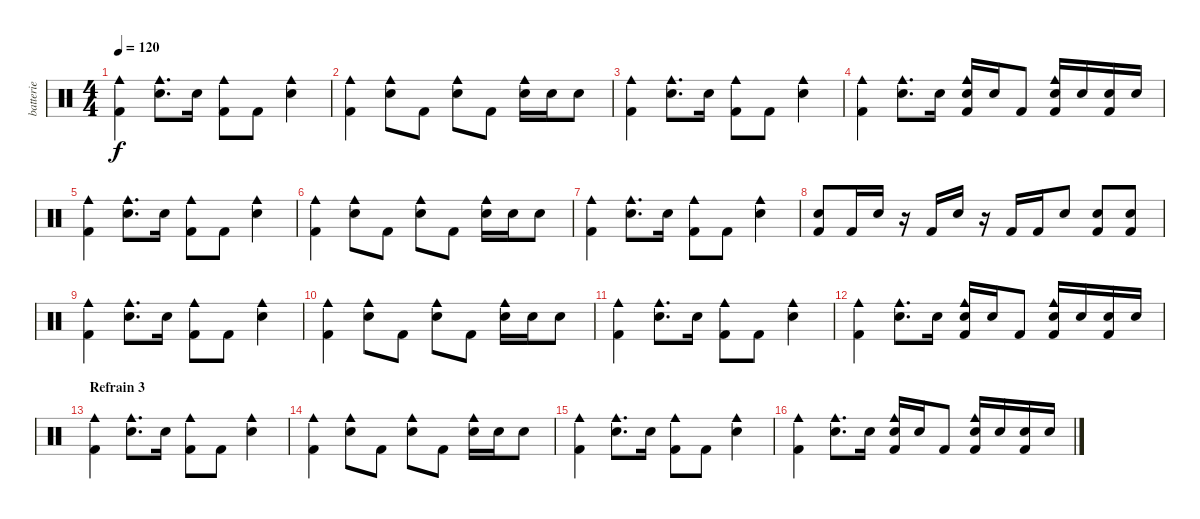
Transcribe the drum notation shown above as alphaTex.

\track ("batterie" "batterie") {instrument percussion}
\staff {score}
\articulation defaults
\ts (4 4)
\tempo 120
\clef neutral
\ks c
("Kick (hit) 2" "Cowbell medium (hit)").4{dy f} ("Electric Snare (hit)" "Cowbell medium (hit)").8{d} "Electric Snare (hit)".16 ("Kick (hit) 2" "Cowbell medium (hit)").8 "Kick (hit) 2".8 ("Electric Snare (hit)" "Cowbell medium (hit)").4 |
("Kick (hit) 2" "Cowbell medium (hit)").4 ("Electric Snare (hit)" "Cowbell medium (hit)").8 "Kick (hit) 2".8 ("Electric Snare (hit)" "Cowbell medium (hit)").8 "Kick (hit) 2".8 ("Electric Snare (hit)" "Cowbell medium (hit)").16 "Electric Snare (hit)".16 "Electric Snare (hit)".8 |
("Kick (hit) 2" "Cowbell medium (hit)").4 ("Electric Snare (hit)" "Cowbell medium (hit)").8{d} "Electric Snare (hit)".16 ("Kick (hit) 2" "Cowbell medium (hit)").8 "Kick (hit) 2".8 ("Electric Snare (hit)" "Cowbell medium (hit)").4 |
("Kick (hit) 2" "Cowbell medium (hit)").4 ("Electric Snare (hit)" "Cowbell medium (hit)").8{d} "Electric Snare (hit)".16 ("Kick (hit) 2" "Electric Snare (hit)" "Cowbell medium (hit)").16 "Electric Snare (hit)".16 "Kick (hit) 2".8 ("Kick (hit) 2" "Electric Snare (hit)" "Cowbell medium (hit)").16 "Electric Snare (hit)".16 ("Kick (hit) 2" "Electric Snare (hit)").16 "Electric Snare (hit)".16 |
("Kick (hit) 2" "Cowbell medium (hit)").4 ("Electric Snare (hit)" "Cowbell medium (hit)").8{d} "Electric Snare (hit)".16 ("Kick (hit) 2" "Cowbell medium (hit)").8 "Kick (hit) 2".8 ("Electric Snare (hit)" "Cowbell medium (hit)").4 |
("Kick (hit) 2" "Cowbell medium (hit)").4 ("Electric Snare (hit)" "Cowbell medium (hit)").8 "Kick (hit) 2".8 ("Electric Snare (hit)" "Cowbell medium (hit)").8 "Kick (hit) 2".8 ("Electric Snare (hit)" "Cowbell medium (hit)").16 "Electric Snare (hit)".16 "Electric Snare (hit)".8 |
("Kick (hit) 2" "Cowbell medium (hit)").4 ("Electric Snare (hit)" "Cowbell medium (hit)").8{d} "Electric Snare (hit)".16 ("Kick (hit) 2" "Cowbell medium (hit)").8 "Kick (hit) 2".8 ("Electric Snare (hit)" "Cowbell medium (hit)").4 |
("Kick (hit) 2" "Electric Snare (hit)").8 "Kick (hit) 2".16 "Electric Snare (hit)".16 r.16 "Kick (hit) 2".16 "Electric Snare (hit)".16 r.16 "Kick (hit) 2".16 "Kick (hit) 2".16 "Electric Snare (hit)".8 ("Kick (hit) 2" "Electric Snare (hit)").8 ("Kick (hit) 2" "Electric Snare (hit)").8 |
("Kick (hit) 2" "Cowbell medium (hit)").4 ("Electric Snare (hit)" "Cowbell medium (hit)").8{d} "Electric Snare (hit)".16 ("Kick (hit) 2" "Cowbell medium (hit)").8 "Kick (hit) 2".8 ("Electric Snare (hit)" "Cowbell medium (hit)").4 |
("Kick (hit) 2" "Cowbell medium (hit)").4 ("Electric Snare (hit)" "Cowbell medium (hit)").8 "Kick (hit) 2".8 ("Electric Snare (hit)" "Cowbell medium (hit)").8 "Kick (hit) 2".8 ("Electric Snare (hit)" "Cowbell medium (hit)").16 "Electric Snare (hit)".16 "Electric Snare (hit)".8 |
("Kick (hit) 2" "Cowbell medium (hit)").4 ("Electric Snare (hit)" "Cowbell medium (hit)").8{d} "Electric Snare (hit)".16 ("Kick (hit) 2" "Cowbell medium (hit)").8 "Kick (hit) 2".8 ("Electric Snare (hit)" "Cowbell medium (hit)").4 |
("Kick (hit) 2" "Cowbell medium (hit)").4 ("Electric Snare (hit)" "Cowbell medium (hit)").8{d} "Electric Snare (hit)".16 ("Kick (hit) 2" "Electric Snare (hit)" "Cowbell medium (hit)").16 "Electric Snare (hit)".16 "Kick (hit) 2".8 ("Kick (hit) 2" "Electric Snare (hit)" "Cowbell medium (hit)").16 "Electric Snare (hit)".16 ("Kick (hit) 2" "Electric Snare (hit)").16 "Electric Snare (hit)".16 |
\section ("" "Refrain 3")
("Kick (hit) 2" "Cowbell medium (hit)").4 ("Electric Snare (hit)" "Cowbell medium (hit)").8{d} "Electric Snare (hit)".16 ("Kick (hit) 2" "Cowbell medium (hit)").8 "Kick (hit) 2".8 ("Electric Snare (hit)" "Cowbell medium (hit)").4 |
("Kick (hit) 2" "Cowbell medium (hit)").4 ("Electric Snare (hit)" "Cowbell medium (hit)").8 "Kick (hit) 2".8 ("Electric Snare (hit)" "Cowbell medium (hit)").8 "Kick (hit) 2".8 ("Electric Snare (hit)" "Cowbell medium (hit)").16 "Electric Snare (hit)".16 "Electric Snare (hit)".8 |
("Kick (hit) 2" "Cowbell medium (hit)").4 ("Electric Snare (hit)" "Cowbell medium (hit)").8{d} "Electric Snare (hit)".16 ("Kick (hit) 2" "Cowbell medium (hit)").8 "Kick (hit) 2".8 ("Electric Snare (hit)" "Cowbell medium (hit)").4 |
("Kick (hit) 2" "Cowbell medium (hit)").4 ("Electric Snare (hit)" "Cowbell medium (hit)").8{d} "Electric Snare (hit)".16 ("Kick (hit) 2" "Electric Snare (hit)" "Cowbell medium (hit)").16 "Electric Snare (hit)".16 "Kick (hit) 2".8 ("Kick (hit) 2" "Electric Snare (hit)" "Cowbell medium (hit)").16 "Electric Snare (hit)".16 ("Kick (hit) 2" "Electric Snare (hit)").16 "Electric Snare (hit)".16
